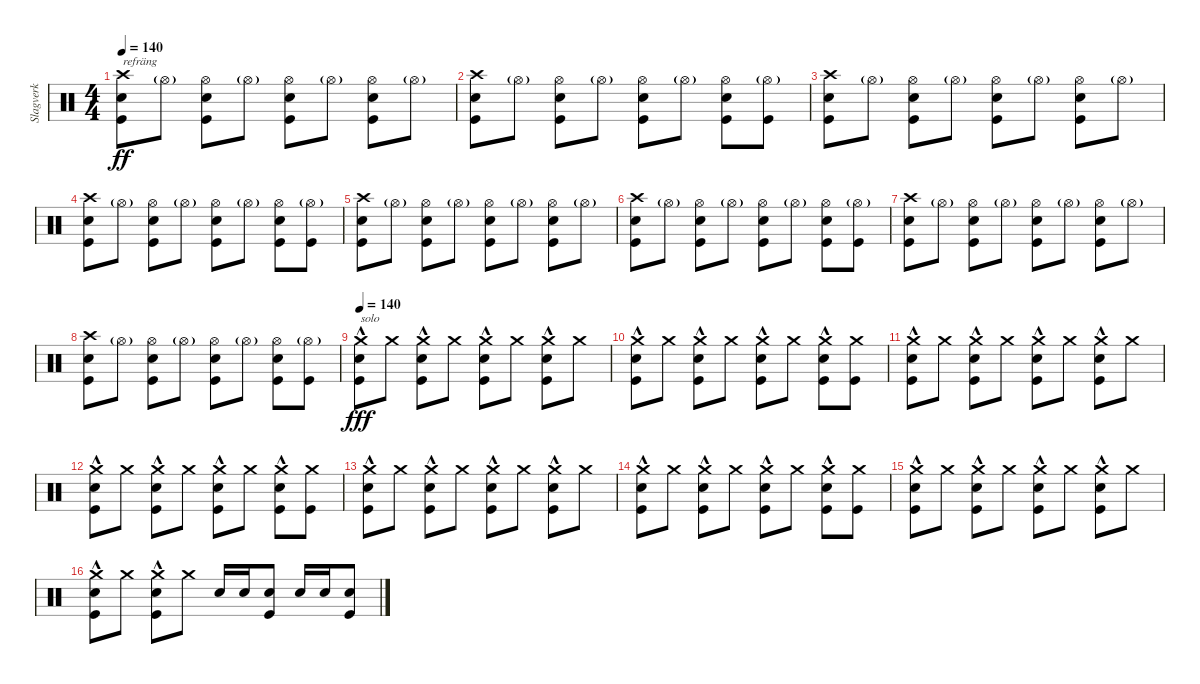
\track ("Slagverk" "Slagverk") {instrument percussion}
\staff {score}
\articulation defaults
\ts (4 4)
\tempo 140
\clef neutral
\ks c
("Crash high (hit)" "Kick (hit)" "Snare (hit) 2").8{txt "refräng" dy ff} "Hi-Hat (open)"{g}.8 ("Hi-Hat (open)" "Kick (hit)" "Snare (hit) 2").8 "Hi-Hat (open)"{g}.8 ("Hi-Hat (open)" "Kick (hit)" "Snare (hit) 2").8 "Hi-Hat (open)"{g}.8 ("Hi-Hat (open)" "Kick (hit)" "Snare (hit) 2").8 "Hi-Hat (open)"{g}.8 |
("Crash high (hit)" "Kick (hit)" "Snare (hit) 2").8 "Hi-Hat (open)"{g}.8 ("Hi-Hat (open)" "Kick (hit)" "Snare (hit) 2").8 "Hi-Hat (open)"{g}.8 ("Hi-Hat (open)" "Kick (hit)" "Snare (hit) 2").8 "Hi-Hat (open)"{g}.8 ("Hi-Hat (open)" "Kick (hit)" "Snare (hit) 2").8 ("Hi-Hat (open)"{g} "Kick (hit)").8 |
("Crash high (hit)" "Kick (hit)" "Snare (hit) 2").8 "Hi-Hat (open)"{g}.8 ("Hi-Hat (open)" "Kick (hit)" "Snare (hit) 2").8 "Hi-Hat (open)"{g}.8 ("Hi-Hat (open)" "Kick (hit)" "Snare (hit) 2").8 "Hi-Hat (open)"{g}.8 ("Hi-Hat (open)" "Kick (hit)" "Snare (hit) 2").8 "Hi-Hat (open)"{g}.8 |
("Crash high (hit)" "Kick (hit)" "Snare (hit) 2").8 "Hi-Hat (open)"{g}.8 ("Hi-Hat (open)" "Kick (hit)" "Snare (hit) 2").8 "Hi-Hat (open)"{g}.8 ("Hi-Hat (open)" "Kick (hit)" "Snare (hit) 2").8 "Hi-Hat (open)"{g}.8 ("Hi-Hat (open)" "Kick (hit)" "Snare (hit) 2").8 ("Hi-Hat (open)"{g} "Kick (hit)").8 |
("Crash high (hit)" "Kick (hit)" "Snare (hit) 2").8 "Hi-Hat (open)"{g}.8 ("Hi-Hat (open)" "Kick (hit)" "Snare (hit) 2").8 "Hi-Hat (open)"{g}.8 ("Hi-Hat (open)" "Kick (hit)" "Snare (hit) 2").8 "Hi-Hat (open)"{g}.8 ("Hi-Hat (open)" "Kick (hit)" "Snare (hit) 2").8 "Hi-Hat (open)"{g}.8 |
("Crash high (hit)" "Kick (hit)" "Snare (hit) 2").8 "Hi-Hat (open)"{g}.8 ("Hi-Hat (open)" "Kick (hit)" "Snare (hit) 2").8 "Hi-Hat (open)"{g}.8 ("Hi-Hat (open)" "Kick (hit)" "Snare (hit) 2").8 "Hi-Hat (open)"{g}.8 ("Hi-Hat (open)" "Kick (hit)" "Snare (hit) 2").8 ("Hi-Hat (open)"{g} "Kick (hit)").8 |
("Crash high (hit)" "Kick (hit)" "Snare (hit) 2").8 "Hi-Hat (open)"{g}.8 ("Hi-Hat (open)" "Kick (hit)" "Snare (hit) 2").8 "Hi-Hat (open)"{g}.8 ("Hi-Hat (open)" "Kick (hit)" "Snare (hit) 2").8 "Hi-Hat (open)"{g}.8 ("Hi-Hat (open)" "Kick (hit)" "Snare (hit) 2").8 "Hi-Hat (open)"{g}.8 |
("Crash high (hit)" "Kick (hit)" "Snare (hit) 2").8 "Hi-Hat (open)"{g}.8 ("Hi-Hat (open)" "Kick (hit)" "Snare (hit) 2").8 "Hi-Hat (open)"{g}.8 ("Hi-Hat (open)" "Kick (hit)" "Snare (hit) 2").8 "Hi-Hat (open)"{g}.8 ("Hi-Hat (open)" "Kick (hit)" "Snare (hit) 2").8 ("Hi-Hat (open)"{g} "Kick (hit)").8 |
\tempo 140
("Crash medium (hit)"{hac} "Kick (hit)"{hac} "Snare (hit) 2"{hac}).8{txt "solo" dy fff} "Crash medium (hit)".8 ("Crash medium (hit)"{hac} "Kick (hit)"{hac} "Snare (hit) 2"{hac}).8 "Crash medium (hit)".8 ("Crash medium (hit)"{hac} "Kick (hit)"{hac} "Snare (hit) 2"{hac}).8 "Crash medium (hit)".8 ("Crash medium (hit)"{hac} "Kick (hit)"{hac} "Snare (hit) 2"{hac}).8 "Crash medium (hit)".8 |
("Crash medium (hit)"{hac} "Kick (hit)"{hac} "Snare (hit) 2"{hac}).8 "Crash medium (hit)".8 ("Crash medium (hit)"{hac} "Kick (hit)"{hac} "Snare (hit) 2"{hac}).8 "Crash medium (hit)".8 ("Crash medium (hit)"{hac} "Kick (hit)"{hac} "Snare (hit) 2"{hac}).8 "Crash medium (hit)".8 ("Crash medium (hit)"{hac} "Kick (hit)"{hac} "Snare (hit) 2"{hac}).8 ("Crash medium (hit)" "Kick (hit)").8 |
("Crash medium (hit)"{hac} "Kick (hit)"{hac} "Snare (hit) 2"{hac}).8 "Crash medium (hit)".8 ("Crash medium (hit)"{hac} "Kick (hit)"{hac} "Snare (hit) 2"{hac}).8 "Crash medium (hit)".8 ("Crash medium (hit)"{hac} "Kick (hit)"{hac} "Snare (hit) 2"{hac}).8 "Crash medium (hit)".8 ("Crash medium (hit)"{hac} "Kick (hit)"{hac} "Snare (hit) 2"{hac}).8 "Crash medium (hit)".8 |
("Crash medium (hit)"{hac} "Kick (hit)"{hac} "Snare (hit) 2"{hac}).8 "Crash medium (hit)".8 ("Crash medium (hit)"{hac} "Kick (hit)"{hac} "Snare (hit) 2"{hac}).8 "Crash medium (hit)".8 ("Crash medium (hit)"{hac} "Kick (hit)"{hac} "Snare (hit) 2"{hac}).8 "Crash medium (hit)".8 ("Crash medium (hit)"{hac} "Kick (hit)"{hac} "Snare (hit) 2"{hac}).8 ("Crash medium (hit)" "Kick (hit)").8 |
("Crash medium (hit)"{hac} "Kick (hit)"{hac} "Snare (hit) 2"{hac}).8 "Crash medium (hit)".8 ("Crash medium (hit)"{hac} "Kick (hit)"{hac} "Snare (hit) 2"{hac}).8 "Crash medium (hit)".8 ("Crash medium (hit)"{hac} "Kick (hit)"{hac} "Snare (hit) 2"{hac}).8 "Crash medium (hit)".8 ("Crash medium (hit)"{hac} "Kick (hit)"{hac} "Snare (hit) 2"{hac}).8 "Crash medium (hit)".8 |
("Crash medium (hit)"{hac} "Kick (hit)"{hac} "Snare (hit) 2"{hac}).8 "Crash medium (hit)".8 ("Crash medium (hit)"{hac} "Kick (hit)"{hac} "Snare (hit) 2"{hac}).8 "Crash medium (hit)".8 ("Crash medium (hit)"{hac} "Kick (hit)"{hac} "Snare (hit) 2"{hac}).8 "Crash medium (hit)".8 ("Crash medium (hit)"{hac} "Kick (hit)"{hac} "Snare (hit) 2"{hac}).8 ("Crash medium (hit)" "Kick (hit)").8 |
("Crash medium (hit)"{hac} "Kick (hit)"{hac} "Snare (hit) 2"{hac}).8 "Crash medium (hit)".8 ("Crash medium (hit)"{hac} "Kick (hit)"{hac} "Snare (hit) 2"{hac}).8 "Crash medium (hit)".8 ("Crash medium (hit)"{hac} "Kick (hit)"{hac} "Snare (hit) 2"{hac}).8 "Crash medium (hit)".8 ("Crash medium (hit)"{hac} "Kick (hit)"{hac} "Snare (hit) 2"{hac}).8 "Crash medium (hit)".8 |
("Crash medium (hit)"{hac} "Kick (hit)"{hac} "Snare (hit) 2"{hac}).8 "Crash medium (hit)".8 ("Crash medium (hit)"{hac} "Kick (hit)"{hac} "Snare (hit) 2"{hac}).8 "Crash medium (hit)".8 "Snare (hit) 2".16 "Snare (hit) 2".16 ("Snare (hit) 2" "Kick (hit)").8 "Snare (hit) 2".16 "Snare (hit) 2".16 ("Snare (hit) 2" "Kick (hit)").8
